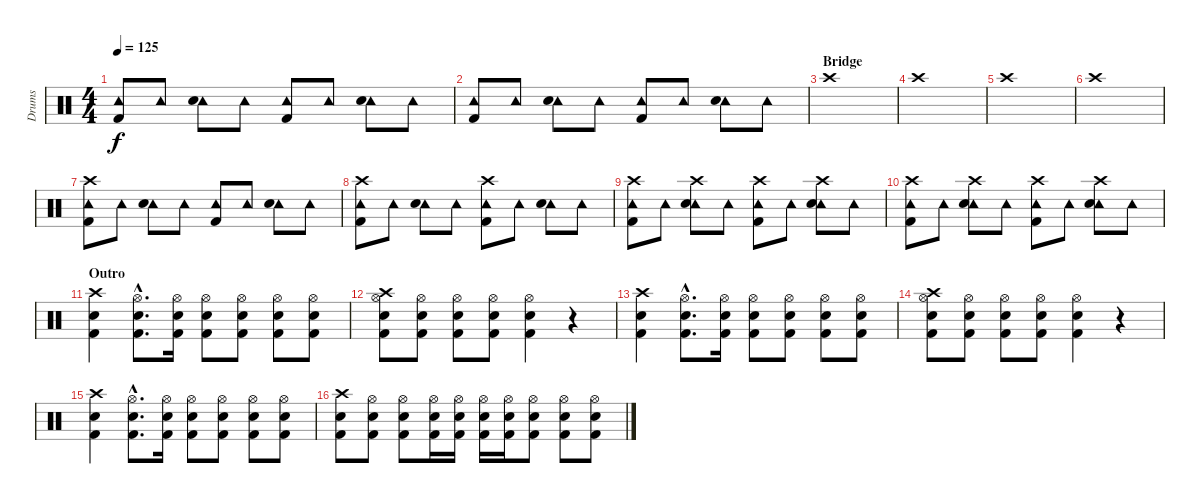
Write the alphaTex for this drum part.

\track ("Drums" "Drums") {instrument percussion}
\staff {score}
\articulation defaults
\ts (4 4)
\tempo 125
\clef neutral
\ks c
("Tambourine (hit)" "Kick (hit) 2").8{dy f} "Tambourine (hit)".8 ("Tambourine (hit)" "Electric Snare (hit)").8 "Tambourine (hit)".8 ("Tambourine (hit)" "Kick (hit) 2").8 "Tambourine (hit)".8 ("Tambourine (hit)" "Electric Snare (hit)").8 "Tambourine (hit)".8 |
("Tambourine (hit)" "Kick (hit) 2").8 "Tambourine (hit)".8 ("Tambourine (hit)" "Electric Snare (hit)").8 "Tambourine (hit)".8 ("Tambourine (hit)" "Kick (hit) 2").8 "Tambourine (hit)".8 ("Tambourine (hit)" "Electric Snare (hit)").8 "Tambourine (hit)".8 |
\section ("" "Bridge")
"Crash high (hit)".1 |
"Crash high (hit)".1 |
"Crash high (hit)".1 |
"Crash high (hit)".1 |
("Crash high (hit)" "Tambourine (hit)" "Kick (hit) 2").8 "Tambourine (hit)".8 ("Tambourine (hit)" "Electric Snare (hit)").8 "Tambourine (hit)".8 ("Tambourine (hit)" "Kick (hit) 2").8 "Tambourine (hit)".8 ("Tambourine (hit)" "Electric Snare (hit)").8 "Tambourine (hit)".8 |
("Crash high (hit)" "Tambourine (hit)" "Kick (hit) 2").8 "Tambourine (hit)".8 ("Tambourine (hit)" "Electric Snare (hit)").8 "Tambourine (hit)".8 ("Crash high (hit)" "Tambourine (hit)" "Kick (hit) 2").8 "Tambourine (hit)".8 ("Tambourine (hit)" "Electric Snare (hit)").8 "Tambourine (hit)".8 |
("Crash high (hit)" "Tambourine (hit)" "Kick (hit) 2").8 "Tambourine (hit)".8 ("Crash high (hit)" "Tambourine (hit)" "Electric Snare (hit)").8 "Tambourine (hit)".8 ("Crash high (hit)" "Tambourine (hit)" "Kick (hit) 2").8 "Tambourine (hit)".8 ("Crash high (hit)" "Tambourine (hit)" "Electric Snare (hit)").8 "Tambourine (hit)".8 |
("Crash high (hit)" "Tambourine (hit)" "Kick (hit) 2").8 "Tambourine (hit)".8 ("Crash high (hit)" "Tambourine (hit)" "Electric Snare (hit)").8 "Tambourine (hit)".8 ("Crash high (hit)" "Tambourine (hit)" "Kick (hit) 2").8 "Tambourine (hit)".8 ("Crash high (hit)" "Tambourine (hit)" "Electric Snare (hit)").8 "Tambourine (hit)".8 |
\section ("" "Outro")
("Crash high (hit)" "Electric Snare (hit)" "Kick (hit) 2").4 ("Hi-Hat (open)"{hac} "Electric Snare (hit)"{hac} "Kick (hit) 2"{hac}).8{d} ("Hi-Hat (open)" "Electric Snare (hit)" "Kick (hit) 2").16 ("Hi-Hat (open)" "Electric Snare (hit)" "Kick (hit) 2").8 ("Hi-Hat (open)" "Electric Snare (hit)" "Kick (hit) 2").8 ("Hi-Hat (open)" "Electric Snare (hit)" "Kick (hit) 2").8 ("Hi-Hat (open)" "Electric Snare (hit)" "Kick (hit) 2").8 |
("Crash high (hit)" "Hi-Hat (open)" "Electric Snare (hit)" "Kick (hit) 2").8 ("Hi-Hat (open)" "Electric Snare (hit)" "Kick (hit) 2").8 ("Hi-Hat (open)" "Electric Snare (hit)" "Kick (hit) 2").8 ("Hi-Hat (open)" "Electric Snare (hit)" "Kick (hit) 2").8 ("Hi-Hat (open)" "Electric Snare (hit)" "Kick (hit) 2").4 r.4 |
("Crash high (hit)" "Electric Snare (hit)" "Kick (hit) 2").4 ("Hi-Hat (open)"{hac} "Electric Snare (hit)"{hac} "Kick (hit) 2"{hac}).8{d} ("Hi-Hat (open)" "Electric Snare (hit)" "Kick (hit) 2").16 ("Hi-Hat (open)" "Electric Snare (hit)" "Kick (hit) 2").8 ("Hi-Hat (open)" "Electric Snare (hit)" "Kick (hit) 2").8 ("Hi-Hat (open)" "Electric Snare (hit)" "Kick (hit) 2").8 ("Hi-Hat (open)" "Electric Snare (hit)" "Kick (hit) 2").8 |
("Crash high (hit)" "Hi-Hat (open)" "Electric Snare (hit)" "Kick (hit) 2").8 ("Hi-Hat (open)" "Electric Snare (hit)" "Kick (hit) 2").8 ("Hi-Hat (open)" "Electric Snare (hit)" "Kick (hit) 2").8 ("Hi-Hat (open)" "Electric Snare (hit)" "Kick (hit) 2").8 ("Hi-Hat (open)" "Electric Snare (hit)" "Kick (hit) 2").4 r.4 |
("Crash high (hit)" "Electric Snare (hit)" "Kick (hit) 2").4 ("Hi-Hat (open)"{hac} "Electric Snare (hit)"{hac} "Kick (hit) 2"{hac}).8{d} ("Hi-Hat (open)" "Electric Snare (hit)" "Kick (hit) 2").16 ("Hi-Hat (open)" "Electric Snare (hit)" "Kick (hit) 2").8 ("Hi-Hat (open)" "Electric Snare (hit)" "Kick (hit) 2").8 ("Hi-Hat (open)" "Electric Snare (hit)" "Kick (hit) 2").8 ("Hi-Hat (open)" "Electric Snare (hit)" "Kick (hit) 2").8 |
("Crash high (hit)" "Electric Snare (hit)" "Kick (hit) 2").8 ("Hi-Hat (open)" "Electric Snare (hit)" "Kick (hit) 2").8 ("Hi-Hat (open)" "Electric Snare (hit)" "Kick (hit) 2").8 ("Hi-Hat (open)" "Electric Snare (hit)" "Kick (hit) 2").16 ("Hi-Hat (open)" "Electric Snare (hit)" "Kick (hit) 2").16 ("Hi-Hat (open)" "Electric Snare (hit)" "Kick (hit) 2").16 ("Hi-Hat (open)" "Electric Snare (hit)" "Kick (hit) 2").16 ("Hi-Hat (open)" "Electric Snare (hit)" "Kick (hit) 2").8 ("Hi-Hat (open)" "Electric Snare (hit)" "Kick (hit) 2").8 ("Hi-Hat (open)" "Electric Snare (hit)" "Kick (hit) 2").8
